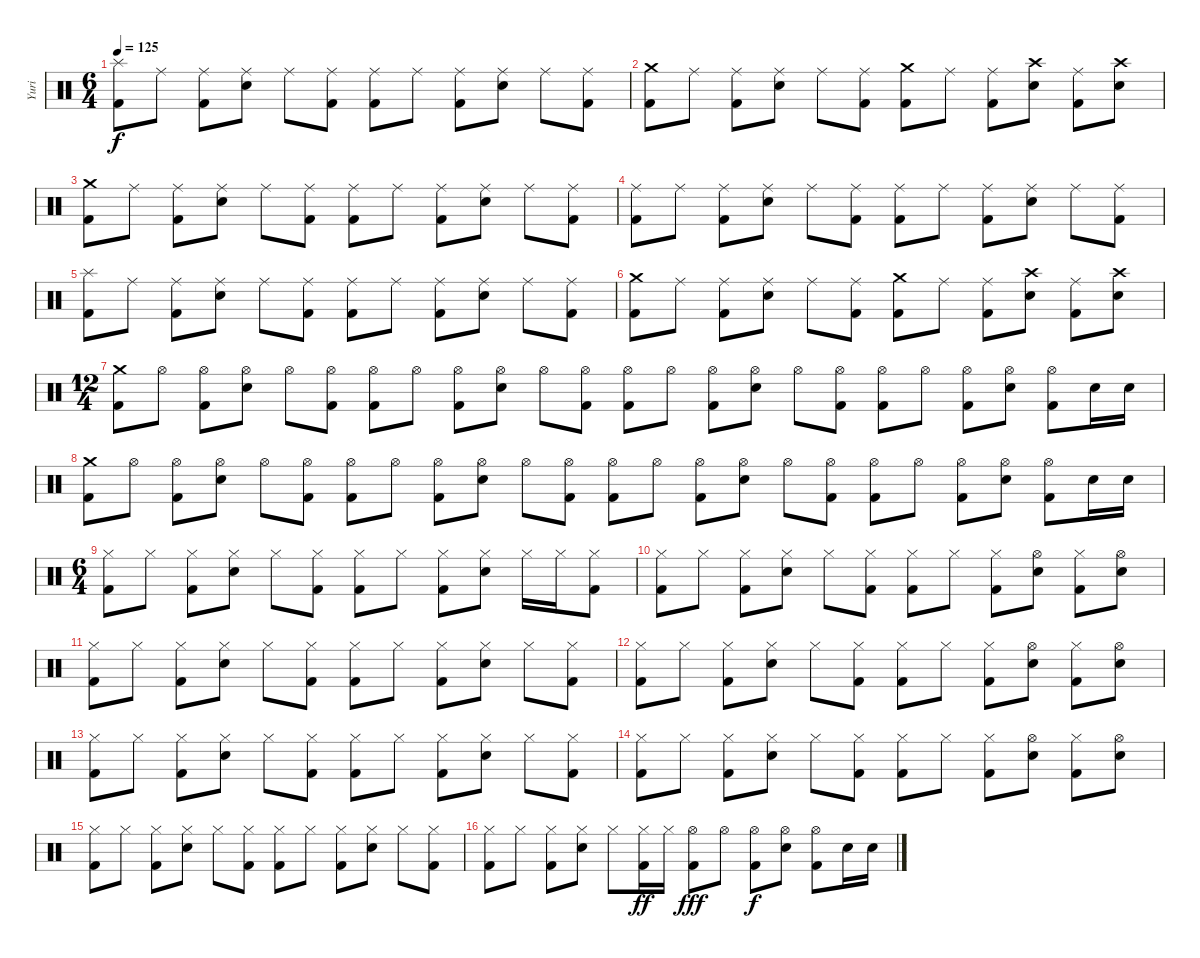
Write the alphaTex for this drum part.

\track ("Yuri" "Yuri") {instrument percussion}
\staff {score}
\articulation defaults
\ts (6 4)
\tempo 125
\clef neutral
\ks c
("Splash (hit)" "Kick (hit) 2").8{dy f} "Ride (middle)".8 ("Ride (middle)" "Kick (hit) 2").8 ("Ride (middle)" "Electric Snare (hit)").8 "Ride (middle)".8 ("Ride (middle)" "Kick (hit) 2").8 ("Ride (middle)" "Kick (hit) 2").8 "Ride (middle)".8 ("Ride (middle)" "Kick (hit) 2").8 ("Ride (middle)" "Electric Snare (hit)").8 "Ride (middle)".8 ("Ride (middle)" "Kick (hit) 2").8 |
("Crash medium (hit)" "Kick (hit) 2").8 "Ride (middle)".8 ("Ride (middle)" "Kick (hit) 2").8 ("Ride (middle)" "Electric Snare (hit)").8 "Ride (middle)".8 ("Ride (middle)" "Kick (hit) 2").8 ("Crash medium (hit)" "Kick (hit) 2").8 "Ride (middle)".8 ("Ride (middle)" "Kick (hit) 2").8 ("Crash high (hit)" "Electric Snare (hit)").8 ("Ride (middle)" "Kick (hit) 2").8 ("Crash high (hit)" "Electric Snare (hit)").8 |
("Crash medium (hit)" "Kick (hit) 2").8 "Ride (middle)".8 ("Ride (middle)" "Kick (hit) 2").8 ("Ride (middle)" "Electric Snare (hit)").8 "Ride (middle)".8 ("Ride (middle)" "Kick (hit) 2").8 ("Ride (middle)" "Kick (hit) 2").8 "Ride (middle)".8 ("Ride (middle)" "Kick (hit) 2").8 ("Ride (middle)" "Electric Snare (hit)").8 "Ride (middle)".8 ("Ride (middle)" "Kick (hit) 2").8 |
("Ride (middle)" "Kick (hit) 2").8 "Ride (middle)".8 ("Ride (middle)" "Kick (hit) 2").8 ("Ride (middle)" "Electric Snare (hit)").8 "Ride (middle)".8 ("Ride (middle)" "Kick (hit) 2").8 ("Ride (middle)" "Kick (hit) 2").8 "Ride (middle)".8 ("Ride (middle)" "Kick (hit) 2").8 ("Ride (middle)" "Electric Snare (hit)").8 "Ride (middle)".8 ("Ride (middle)" "Kick (hit) 2").8 |
("Splash (hit)" "Kick (hit) 2").8 "Ride (middle)".8 ("Ride (middle)" "Kick (hit) 2").8 ("Ride (middle)" "Electric Snare (hit)").8 "Ride (middle)".8 ("Ride (middle)" "Kick (hit) 2").8 ("Ride (middle)" "Kick (hit) 2").8 "Ride (middle)".8 ("Ride (middle)" "Kick (hit) 2").8 ("Ride (middle)" "Electric Snare (hit)").8 "Ride (middle)".8 ("Ride (middle)" "Kick (hit) 2").8 |
("Crash medium (hit)" "Kick (hit) 2").8 "Ride (middle)".8 ("Ride (middle)" "Kick (hit) 2").8 ("Ride (middle)" "Electric Snare (hit)").8 "Ride (middle)".8 ("Ride (middle)" "Kick (hit) 2").8 ("Crash medium (hit)" "Kick (hit) 2").8 "Ride (middle)".8 ("Ride (middle)" "Kick (hit) 2").8 ("Crash high (hit)" "Electric Snare (hit)").8 ("Ride (middle)" "Kick (hit) 2").8 ("Crash high (hit)" "Electric Snare (hit)").8 |
\ts (12 4)
("Crash medium (hit)" "Kick (hit) 2").8 "Hi-Hat (open)".8 ("Hi-Hat (open)" "Kick (hit) 2").8 ("Hi-Hat (open)" "Electric Snare (hit)").8 "Hi-Hat (open)".8 ("Hi-Hat (open)" "Kick (hit) 2").8 ("Hi-Hat (open)" "Kick (hit) 2").8 "Hi-Hat (open)".8 ("Hi-Hat (open)" "Kick (hit) 2").8 ("Hi-Hat (open)" "Electric Snare (hit)").8 "Hi-Hat (open)".8 ("Hi-Hat (open)" "Kick (hit) 2").8 ("Hi-Hat (open)" "Kick (hit) 2").8 "Hi-Hat (open)".8 ("Hi-Hat (open)" "Kick (hit) 2").8 ("Hi-Hat (open)" "Electric Snare (hit)").8 "Hi-Hat (open)".8 ("Hi-Hat (open)" "Kick (hit) 2").8 ("Hi-Hat (open)" "Kick (hit) 2").8 "Hi-Hat (open)".8 ("Hi-Hat (open)" "Kick (hit) 2").8 ("Hi-Hat (open)" "Electric Snare (hit)").8 ("Hi-Hat (open)" "Kick (hit) 2").8 "Electric Snare (hit)".16 "Electric Snare (hit)".16 |
("Crash medium (hit)" "Kick (hit) 2").8 "Hi-Hat (open)".8 ("Hi-Hat (open)" "Kick (hit) 2").8 ("Hi-Hat (open)" "Electric Snare (hit)").8 "Hi-Hat (open)".8 ("Hi-Hat (open)" "Kick (hit) 2").8 ("Hi-Hat (open)" "Kick (hit) 2").8 "Hi-Hat (open)".8 ("Hi-Hat (open)" "Kick (hit) 2").8 ("Hi-Hat (open)" "Electric Snare (hit)").8 "Hi-Hat (open)".8 ("Hi-Hat (open)" "Kick (hit) 2").8 ("Hi-Hat (open)" "Kick (hit) 2").8 "Hi-Hat (open)".8 ("Hi-Hat (open)" "Kick (hit) 2").8 ("Hi-Hat (open)" "Electric Snare (hit)").8 "Hi-Hat (open)".8 ("Hi-Hat (open)" "Kick (hit) 2").8 ("Hi-Hat (open)" "Kick (hit) 2").8 "Hi-Hat (open)".8 ("Hi-Hat (open)" "Kick (hit) 2").8 ("Hi-Hat (open)" "Electric Snare (hit)").8 ("Hi-Hat (open)" "Kick (hit) 2").8 "Electric Snare (hit)".16 "Electric Snare (hit)".16 |
\ts (6 4)
("Hi-Hat (closed)" "Kick (hit) 2").8 "Hi-Hat (closed)".8 ("Hi-Hat (closed)" "Kick (hit) 2").8 ("Hi-Hat (closed)" "Electric Snare (hit)").8 "Hi-Hat (closed)".8 ("Hi-Hat (closed)" "Kick (hit) 2").8 ("Hi-Hat (closed)" "Kick (hit) 2").8 "Hi-Hat (closed)".8 ("Hi-Hat (closed)" "Kick (hit) 2").8 ("Hi-Hat (closed)" "Electric Snare (hit)").8 "Hi-Hat (closed)".16 "Hi-Hat (closed)".16 ("Hi-Hat (closed)" "Kick (hit) 2").8 |
("Hi-Hat (closed)" "Kick (hit) 2").8 "Hi-Hat (closed)".8 ("Hi-Hat (closed)" "Kick (hit) 2").8 ("Hi-Hat (closed)" "Electric Snare (hit)").8 "Hi-Hat (closed)".8 ("Hi-Hat (closed)" "Kick (hit) 2").8 ("Hi-Hat (closed)" "Kick (hit) 2").8 "Hi-Hat (closed)".8 ("Hi-Hat (closed)" "Kick (hit) 2").8 ("Hi-Hat (open)" "Electric Snare (hit)").8 ("Hi-Hat (closed)" "Kick (hit) 2").8 ("Hi-Hat (open)" "Electric Snare (hit)").8 |
("Hi-Hat (closed)" "Kick (hit) 2").8 "Hi-Hat (closed)".8 ("Hi-Hat (closed)" "Kick (hit) 2").8 ("Hi-Hat (closed)" "Electric Snare (hit)").8 "Hi-Hat (closed)".8 ("Hi-Hat (closed)" "Kick (hit) 2").8 ("Hi-Hat (closed)" "Kick (hit) 2").8 "Hi-Hat (closed)".8 ("Hi-Hat (closed)" "Kick (hit) 2").8 ("Hi-Hat (closed)" "Electric Snare (hit)").8 "Hi-Hat (closed)".8 ("Hi-Hat (closed)" "Kick (hit) 2").8 |
("Hi-Hat (closed)" "Kick (hit) 2").8 "Hi-Hat (closed)".8 ("Hi-Hat (closed)" "Kick (hit) 2").8 ("Hi-Hat (closed)" "Electric Snare (hit)").8 "Hi-Hat (closed)".8 ("Hi-Hat (closed)" "Kick (hit) 2").8 ("Hi-Hat (closed)" "Kick (hit) 2").8 "Hi-Hat (closed)".8 ("Hi-Hat (closed)" "Kick (hit) 2").8 ("Hi-Hat (open)" "Electric Snare (hit)").8 ("Hi-Hat (closed)" "Kick (hit) 2").8 ("Hi-Hat (open)" "Electric Snare (hit)").8 |
("Hi-Hat (closed)" "Kick (hit) 2").8 "Hi-Hat (closed)".8 ("Hi-Hat (closed)" "Kick (hit) 2").8 ("Hi-Hat (closed)" "Electric Snare (hit)").8 "Hi-Hat (closed)".8 ("Hi-Hat (closed)" "Kick (hit) 2").8 ("Hi-Hat (closed)" "Kick (hit) 2").8 "Hi-Hat (closed)".8 ("Hi-Hat (closed)" "Kick (hit) 2").8 ("Hi-Hat (closed)" "Electric Snare (hit)").8 "Hi-Hat (closed)".8 ("Hi-Hat (closed)" "Kick (hit) 2").8 |
("Hi-Hat (closed)" "Kick (hit) 2").8 "Hi-Hat (closed)".8 ("Hi-Hat (closed)" "Kick (hit) 2").8 ("Hi-Hat (closed)" "Electric Snare (hit)").8 "Hi-Hat (closed)".8 ("Hi-Hat (closed)" "Kick (hit) 2").8 ("Hi-Hat (closed)" "Kick (hit) 2").8 "Hi-Hat (closed)".8 ("Hi-Hat (closed)" "Kick (hit) 2").8 ("Hi-Hat (open)" "Electric Snare (hit)").8 ("Hi-Hat (closed)" "Kick (hit) 2").8 ("Hi-Hat (open)" "Electric Snare (hit)").8 |
("Hi-Hat (closed)" "Kick (hit) 2").8 "Hi-Hat (closed)".8 ("Hi-Hat (closed)" "Kick (hit) 2").8 ("Hi-Hat (closed)" "Electric Snare (hit)").8 "Hi-Hat (closed)".8 ("Hi-Hat (closed)" "Kick (hit) 2").8 ("Hi-Hat (closed)" "Kick (hit) 2").8 "Hi-Hat (closed)".8 ("Hi-Hat (closed)" "Kick (hit) 2").8 ("Hi-Hat (closed)" "Electric Snare (hit)").8 "Hi-Hat (closed)".8 ("Hi-Hat (closed)" "Kick (hit) 2").8 |
("Hi-Hat (closed)" "Kick (hit) 2").8 "Hi-Hat (closed)".8 ("Hi-Hat (closed)" "Kick (hit) 2").8 ("Hi-Hat (closed)" "Electric Snare (hit)").8 "Hi-Hat (closed)".8 ("Hi-Hat (closed)" "Kick (hit) 2").16{dy ff} "Hi-Hat (closed)".16 ("Hi-Hat (open)" "Kick (hit) 2").8{dy fff} "Hi-Hat (open)".8 ("Hi-Hat (open)" "Kick (hit) 2").8{dy f} ("Hi-Hat (open)" "Electric Snare (hit)").8 ("Hi-Hat (open)" "Kick (hit) 2").8 "Electric Snare (hit)".16 "Electric Snare (hit)".16
